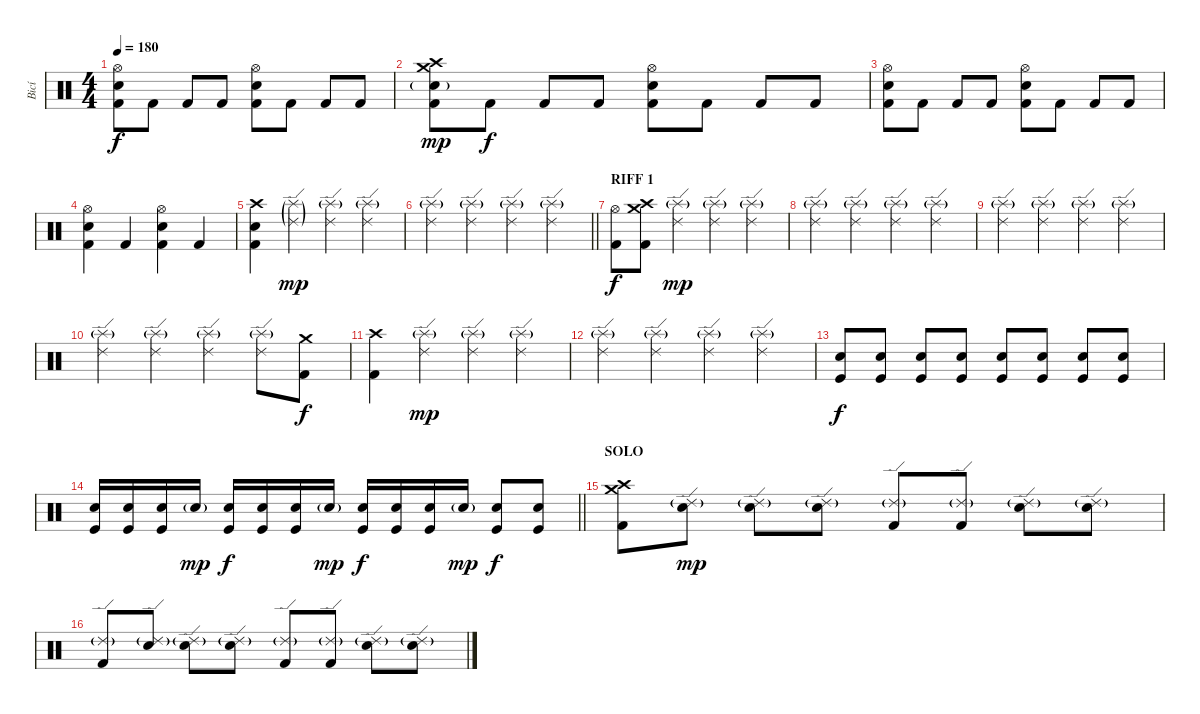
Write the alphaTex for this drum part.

\track ("Bicí" "Bicí") {instrument percussion}
\staff {score}
\articulation defaults
\ts (4 4)
\tempo 180
\clef neutral
\ks c
("Hi-Hat (open)" "Electric Snare (hit)" "Kick (hit) 2").8{dy f} "Kick (hit) 2".8 "Kick (hit) 2".8 "Kick (hit) 2".8 ("Hi-Hat (open)" "Electric Snare (hit)" "Kick (hit) 2").8 "Kick (hit) 2".8 "Kick (hit) 2".8 "Kick (hit) 2".8 |
("Crash high (hit)" "Crash medium (hit)" "Electric Snare (hit)"{g} "Kick (hit) 2").8{dy mp} "Kick (hit) 2".8{dy f} "Kick (hit) 2".8 "Kick (hit) 2".8 ("Hi-Hat (open)" "Electric Snare (hit)" "Kick (hit) 2").8 "Kick (hit) 2".8 "Kick (hit) 2".8 "Kick (hit) 2".8 |
("Hi-Hat (open)" "Electric Snare (hit)" "Kick (hit) 2").8 "Kick (hit) 2".8 "Kick (hit) 2".8 "Kick (hit) 2".8 ("Hi-Hat (open)" "Electric Snare (hit)" "Kick (hit) 2").8 "Kick (hit) 2".8 "Kick (hit) 2".8 "Kick (hit) 2".8 |
("Hi-Hat (open)" "Electric Snare (hit)" "Kick (hit) 2").4 "Kick (hit) 2".4 ("Hi-Hat (open)" "Electric Snare (hit)" "Kick (hit) 2").4 "Kick (hit) 2".4 |
("Crash high (hit)" "Kick (hit) 2" "Electric Snare (hit)").4 ("Ride (edge) 2"{g} "Splash (hit)"{g}).4{dy mp} ("Ride (edge) 2" "Splash (hit)"{g}).4 ("Ride (edge) 2" "Splash (hit)"{g}).4 |
\barLineRight lightlight
("Ride (edge) 2" "Splash (hit)"{g}).4 ("Ride (edge) 2" "Splash (hit)"{g}).4 ("Ride (edge) 2" "Splash (hit)"{g}).4 ("Ride (edge) 2" "Splash (hit)"{g}).4 |
\section ("" "RIFF 1")
("Hi-Hat (open)" "Kick (hit) 2").8{dy f} ("Crash medium (hit)" "Crash high (hit)" "Kick (hit) 2").8 ("Ride (edge) 2" "Splash (hit)"{g}).4{dy mp} ("Ride (edge) 2" "Splash (hit)"{g}).4 ("Ride (edge) 2" "Splash (hit)"{g}).4 |
("Ride (edge) 2" "Splash (hit)"{g}).4 ("Ride (edge) 2" "Splash (hit)"{g}).4 ("Ride (edge) 2" "Splash (hit)"{g}).4 ("Ride (edge) 2" "Splash (hit)"{g}).4 |
("Ride (edge) 2" "Splash (hit)"{g}).4 ("Ride (edge) 2" "Splash (hit)"{g}).4 ("Ride (edge) 2" "Splash (hit)"{g}).4 ("Ride (edge) 2" "Splash (hit)"{g}).4 |
("Ride (edge) 2" "Splash (hit)"{g}).4 ("Ride (edge) 2" "Splash (hit)"{g}).4 ("Ride (edge) 2" "Splash (hit)"{g}).4 ("Ride (edge) 2" "Splash (hit)"{g}).8 ("Crash medium (hit)" "Kick (hit) 2").8{dy f} |
("Crash high (hit)" "Kick (hit) 2").4 ("Ride (edge) 2" "Splash (hit)"{g}).4{dy mp} ("Ride (edge) 2" "Splash (hit)"{g}).4 ("Ride (edge) 2" "Splash (hit)"{g}).4 |
("Ride (edge) 2" "Splash (hit)"{g}).4 ("Ride (edge) 2" "Splash (hit)"{g}).4 ("Ride (edge) 2" "Splash (hit)"{g}).4 ("Ride (edge) 2" "Splash (hit)"{g}).4 |
("Electric Snare (hit)" "Kick (hit)").8{dy f} ("Electric Snare (hit)" "Kick (hit)").8 ("Electric Snare (hit)" "Kick (hit)").8 ("Electric Snare (hit)" "Kick (hit)").8 ("Electric Snare (hit)" "Kick (hit)").8 ("Electric Snare (hit)" "Kick (hit)").8 ("Electric Snare (hit)" "Kick (hit)").8 ("Electric Snare (hit)" "Kick (hit)").8 |
\barLineRight lightlight
("Electric Snare (hit)" "Kick (hit)").16 ("Electric Snare (hit)" "Kick (hit)").16 ("Electric Snare (hit)" "Kick (hit)").16 "Electric Snare (hit)"{g}.16{dy mp} ("Electric Snare (hit)" "Kick (hit)").16{dy f} ("Electric Snare (hit)" "Kick (hit)").16 ("Electric Snare (hit)" "Kick (hit)").16 "Electric Snare (hit)"{g}.16{dy mp} ("Electric Snare (hit)" "Kick (hit)").16{dy f} ("Electric Snare (hit)" "Kick (hit)").16 ("Electric Snare (hit)" "Kick (hit)").16 "Electric Snare (hit)"{g}.16{dy mp} ("Electric Snare (hit)" "Kick (hit)").8{dy f} ("Electric Snare (hit)" "Kick (hit)").8 |
\section ("" "SOLO")
("Crash high (hit)" "Crash medium (hit)" "Kick (hit) 2").8 ("Ride (edge) 2"{g} "Snare (hit)").8{dy mp} ("Ride (edge) 2"{g} "Electric Snare (hit)").8 ("Ride (edge) 2"{g} "Snare (hit)").8 ("Ride (edge) 2"{g} "Kick (hit) 2").8 ("Ride (edge) 2"{g} "Kick (hit) 2").8 ("Ride (edge) 2"{g} "Electric Snare (hit)").8 ("Ride (edge) 2"{g} "Snare (hit)").8 |
("Ride (edge) 2"{g} "Kick (hit) 2").8 ("Ride (edge) 2"{g} "Snare (hit)").8 ("Ride (edge) 2"{g} "Electric Snare (hit)").8 ("Ride (edge) 2"{g} "Snare (hit)").8 ("Ride (edge) 2"{g} "Kick (hit) 2").8 ("Ride (edge) 2"{g} "Kick (hit) 2").8 ("Ride (edge) 2"{g} "Electric Snare (hit)").8 ("Ride (edge) 2"{g} "Snare (hit)").8
